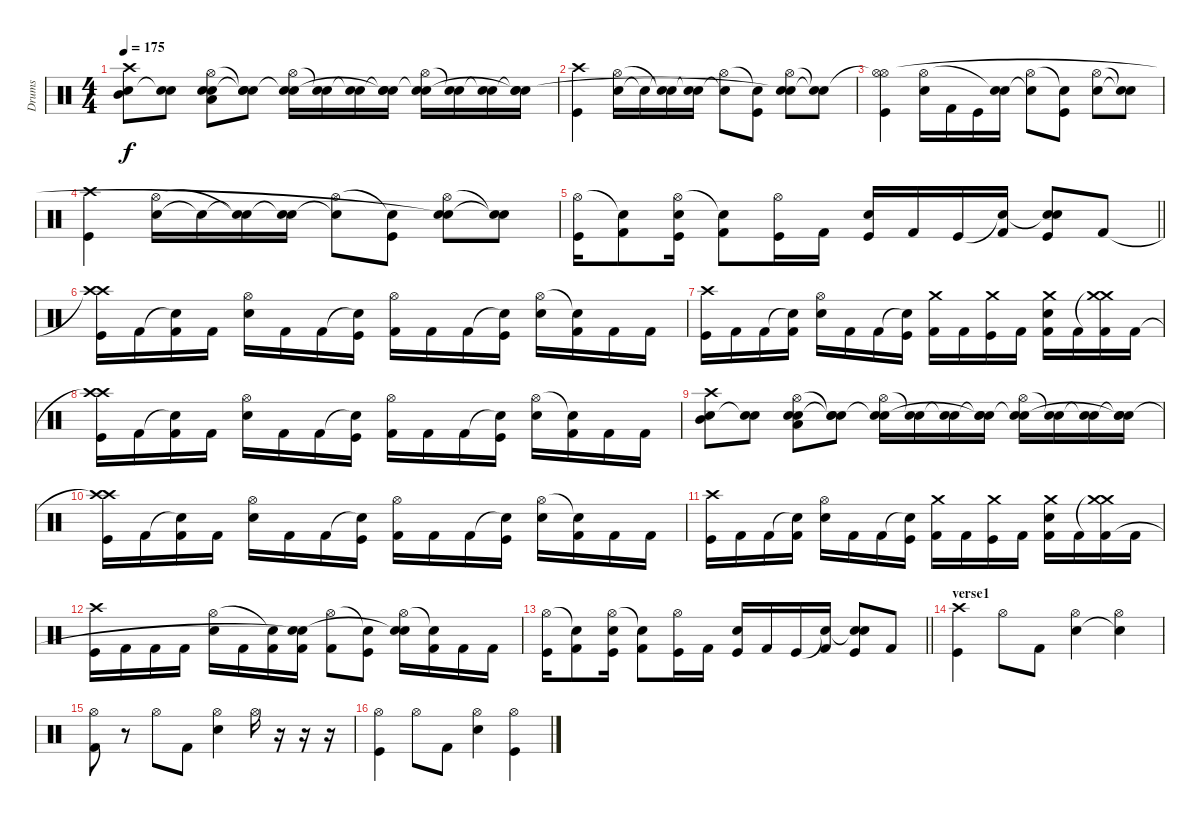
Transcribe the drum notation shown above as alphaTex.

\track ("Drums" "Drums") {instrument percussion}
\staff {score}
\articulation defaults
\ts (4 4)
\tempo 175
\clef neutral
\ks c
("Mid Tom (hit)" "Snare (hit) 2" "Crash high (hit)").8{dy f} ("Snare (hit) 2" "Snare (hit)"{t}).8 ("Low Floor Tom (hit)" "Snare (hit) 2" "Hi-Hat (open)" "Snare (hit)"{t}).8 ("Snare (hit) 2" "Snare (hit)"{t} "Snare (hit)"{t}).8 ("Snare (hit) 2" "Hi-Hat (open)" "Snare (hit)"{t}).16 ("Snare (hit) 2" "Snare (hit)"{t}).16 ("Snare (hit) 2" "Snare (hit)"{t}).16 ("Snare (hit) 2" "Snare (hit)"{t} "Snare (hit)"{t}).16 ("Snare (hit) 2" "Hi-Hat (open)" "Snare (hit)"{t}).16 ("Snare (hit) 2" "Snare (hit)"{t}).16 ("Snare (hit) 2" "Snare (hit)"{t}).16 ("Snare (hit) 2" "Snare (hit)"{t} "Snare (hit)"{t}).16 |
("Kick (hit)" "Crash high (hit)").4 ("Snare (hit) 2" "Hi-Hat (open)").16 "Snare (hit)"{t}.16 ("Snare (hit)"{t} "Snare (hit)"{t}).16 ("Snare (hit) 2" "Snare (hit)"{t}).16 ("Snare (hit)"{t} "Hi-Hat (open)").8 ("Kick (hit)" "Snare (hit)"{t}).8 ("Snare (hit) 2" "Hi-Hat (open)" "Snare (hit)"{t}).8 ("Snare (hit)"{t} "Snare (hit)"{t}).8 |
("Kick (hit)" "Hi-Hat (open)"{t} "Hi-Hat (open)").4 ("Snare (hit) 2" "Hi-Hat (open)").16 "Kick (hit) 2".16 "Kick (hit)".16 ("Snare (hit) 2" "Snare (hit)"{t}).16 ("Snare (hit)"{t} "Hi-Hat (open)").8 ("Kick (hit)" "Snare (hit)"{t}).8 ("Snare (hit) 2" "Hi-Hat (open)").8 ("Snare (hit)"{t} "Snare (hit)"{t}).8 |
("Kick (hit)" "Crash high (hit)").4 ("Snare (hit) 2" "Hi-Hat (open)").16 "Snare (hit)"{t}.16 ("Snare (hit)"{t} "Snare (hit)"{t}).16 ("Snare (hit) 2" "Snare (hit)"{t}).16 ("Snare (hit)"{t} "Hi-Hat (open)").8 ("Kick (hit)" "Snare (hit)"{t}).8 ("Snare (hit) 2" "Hi-Hat (open)" "Snare (hit)"{t}).8 ("Snare (hit)"{t} "Snare (hit)"{t}).8 |
\barLineRight lightlight
("Hi-Hat (open)" "Kick (hit)").16 ("Snare (hit)"{t} "Kick (hit) 2").8 ("Hi-Hat (open)" "Snare (hit) 2" "Kick (hit)").16 ("Snare (hit)"{t} "Kick (hit) 2").8 ("Hi-Hat (open)" "Kick (hit)").16 "Kick (hit) 2".16 ("Snare (hit) 2" "Kick (hit)").16 "Kick (hit) 2".16 "Kick (hit)".16 ("Snare (hit)"{t} "Kick (hit) 2").16 ("Snare (hit)"{t} "Snare (hit) 2" "Kick (hit)").8 "Kick (hit) 2".8 |
("Crash high (hit)"{t} "Crash high (hit)" "Kick (hit)").16 "Kick (hit) 2".16 ("Snare (hit)"{t} "Kick (hit) 2").16 "Kick (hit) 2".16 ("Hi-Hat (open)" "Snare (hit) 2").16 "Kick (hit) 2".16 "Kick (hit) 2".16 ("Snare (hit)"{t} "Kick (hit)").16 ("Hi-Hat (open)" "Kick (hit) 2").16 "Kick (hit) 2".16 "Kick (hit) 2".16 ("Snare (hit)"{t} "Kick (hit)").16 ("Hi-Hat (open)" "Snare (hit) 2").16 ("Snare (hit)"{t} "Kick (hit) 2").16 "Kick (hit) 2".16 "Kick (hit) 2".16 |
("Crash high (hit)" "Kick (hit)").16 "Kick (hit) 2".16 "Kick (hit) 2".16 ("Snare (hit)"{t} "Kick (hit) 2").16 ("Hi-Hat (open)" "Snare (hit) 2").16 "Kick (hit) 2".16 "Kick (hit) 2".16 ("Snare (hit)"{t} "Kick (hit)").16 ("Crash medium (hit)" "Kick (hit) 2").16 "Kick (hit) 2".16 ("Crash medium (hit)" "Kick (hit)").16 "Kick (hit) 2".16 ("Crash medium (hit)" "Snare (hit) 2" "Kick (hit) 2").16 "Kick (hit) 2".16 ("Crash medium (hit)"{t} "Crash medium (hit)" "Kick (hit) 2").16 "Kick (hit) 2".16 |
("Crash high (hit)"{t} "Crash high (hit)" "Kick (hit)").16 "Kick (hit) 2".16 ("Snare (hit)"{t} "Kick (hit) 2").16 "Kick (hit) 2".16 ("Hi-Hat (open)" "Snare (hit) 2").16 "Kick (hit) 2".16 "Kick (hit) 2".16 ("Snare (hit)"{t} "Kick (hit)").16 ("Hi-Hat (open)" "Kick (hit) 2").16 "Kick (hit) 2".16 "Kick (hit) 2".16 ("Snare (hit)"{t} "Kick (hit)").16 ("Hi-Hat (open)" "Snare (hit) 2").16 ("Snare (hit)"{t} "Kick (hit) 2").16 "Kick (hit) 2".16 "Kick (hit) 2".16 |
("Mid Tom (hit)" "Snare (hit) 2" "Crash high (hit)").8 ("Snare (hit) 2" "Snare (hit)"{t}).8 ("Low Floor Tom (hit)" "Snare (hit) 2" "Hi-Hat (open)" "Snare (hit)").8 ("Snare (hit) 2" "Snare (hit)"{t} "Snare (hit)"{t}).8 ("Snare (hit) 2" "Hi-Hat (open)" "Snare (hit)"{t}).16 ("Snare (hit) 2" "Snare (hit)"{t}).16 ("Snare (hit) 2" "Snare (hit)"{t}).16 ("Snare (hit) 2" "Snare (hit)"{t} "Snare (hit)"{t}).16 ("Snare (hit) 2" "Hi-Hat (open)" "Snare (hit)"{t}).16 ("Snare (hit) 2" "Snare (hit)"{t}).16 ("Snare (hit) 2" "Snare (hit)"{t}).16 ("Snare (hit) 2" "Snare (hit)"{t} "Snare (hit)"{t}).16 |
("Crash high (hit)"{t} "Crash high (hit)" "Kick (hit)").16 "Kick (hit) 2".16 ("Snare (hit)"{t} "Kick (hit) 2").16 "Kick (hit) 2".16 ("Hi-Hat (open)" "Snare (hit) 2").16 "Kick (hit) 2".16 "Kick (hit) 2".16 ("Snare (hit)"{t} "Kick (hit)").16 ("Hi-Hat (open)" "Kick (hit) 2").16 "Kick (hit) 2".16 "Kick (hit) 2".16 ("Snare (hit)"{t} "Kick (hit)").16 ("Hi-Hat (open)" "Snare (hit) 2").16 ("Snare (hit)"{t} "Kick (hit) 2").16 "Kick (hit) 2".16 "Kick (hit) 2".16 |
("Crash high (hit)" "Kick (hit)").16 "Kick (hit) 2".16 "Kick (hit) 2".16 ("Snare (hit)"{t} "Kick (hit) 2").16 ("Hi-Hat (open)" "Snare (hit) 2").16 "Kick (hit) 2".16 "Kick (hit) 2".16 ("Snare (hit)"{t} "Kick (hit)").16 ("Crash medium (hit)" "Kick (hit) 2").16 "Kick (hit) 2".16 ("Crash medium (hit)" "Kick (hit)").16 "Kick (hit) 2".16 ("Crash medium (hit)" "Snare (hit) 2" "Kick (hit) 2").16 "Kick (hit) 2".16 ("Crash medium (hit)"{t} "Crash medium (hit)" "Kick (hit) 2").16 "Kick (hit) 2".16 |
("Kick (hit)" "Crash high (hit)").16 "Kick (hit) 2".16 "Kick (hit) 2".16 "Kick (hit) 2".16 ("Snare (hit) 2" "Hi-Hat (open)").16 "Kick (hit) 2".16 ("Kick (hit) 2" "Snare (hit)"{t}).16 ("Snare (hit) 2" "Kick (hit) 2" "Snare (hit)"{t}).16 ("Kick (hit) 2" "Hi-Hat (open)").8 ("Kick (hit)" "Snare (hit)"{t}).8 ("Snare (hit) 2" "Hi-Hat (open)" "Snare (hit)"{t}).16 ("Kick (hit) 2" "Snare (hit)"{t}).16 "Kick (hit) 2".16 "Kick (hit) 2".16 |
\barLineRight lightlight
("Hi-Hat (open)" "Kick (hit)").16 ("Snare (hit)"{t} "Kick (hit) 2").8 ("Hi-Hat (open)" "Snare (hit) 2" "Kick (hit)").16 ("Snare (hit)"{t} "Kick (hit) 2").8 ("Hi-Hat (open)" "Kick (hit)").16 "Kick (hit) 2".16 ("Snare (hit) 2" "Kick (hit)").16 "Kick (hit) 2".16 "Kick (hit)".16 ("Snare (hit)"{t} "Kick (hit) 2").16 ("Snare (hit)"{t} "Snare (hit) 2" "Kick (hit)").8 "Kick (hit) 2".8 |
\section ("" "verse1")
("Kick (hit)" "Crash high (hit)").4 "Hi-Hat (open)".8 "Kick (hit) 2".8 ("Hi-Hat (open)" "Snare (hit) 2").4 ("Hi-Hat (open)" "Snare (hit)"{t}).4 |
("Hi-Hat (open)" "Kick (hit) 2").8 r.8 "Hi-Hat (open)".8 "Kick (hit) 2".8 ("Hi-Hat (open)" "Snare (hit) 2").4 "Hi-Hat (open)".16 r.16 r.16 r.16 |
("Hi-Hat (open)" "Kick (hit)").4 "Hi-Hat (open)".8 "Kick (hit) 2".8 ("Hi-Hat (open)" "Snare (hit) 2").4 ("Hi-Hat (open)" "Kick (hit)").4
